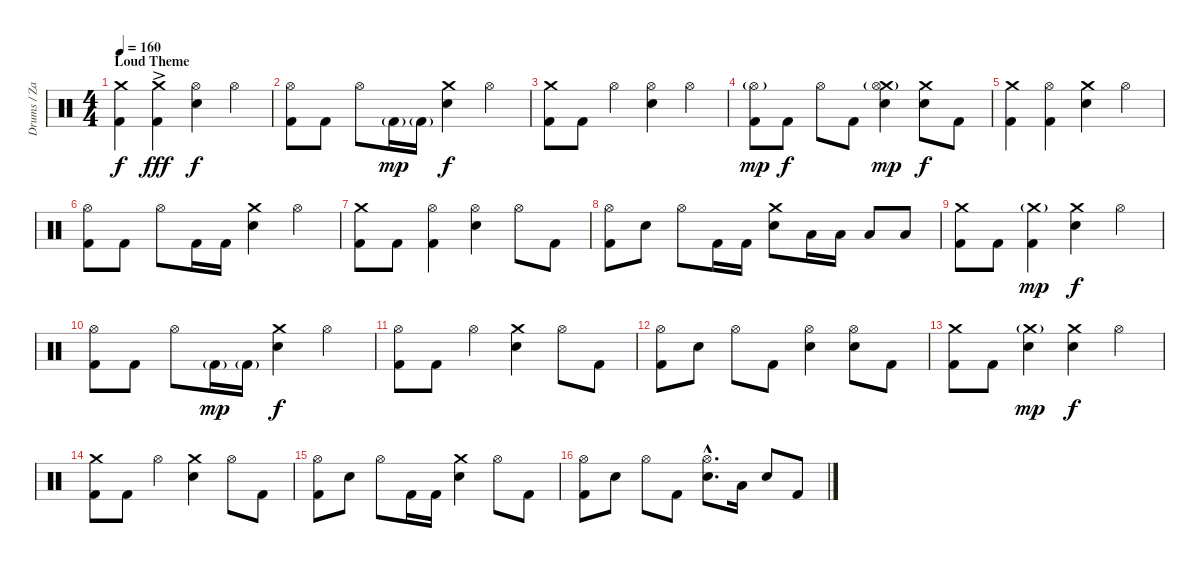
\track ("Drums / Zac Hill" "Drums / Za") {instrument percussion}
\staff {score}
\articulation defaults
\ts (4 4)
\section ("" "Loud Theme")
\tempo 160
\clef neutral
\ks c
("Crash medium (hit)" "Kick (hit) 2").4{dy f} ("Crash medium (hit)"{ac} "Kick (hit) 2").4{dy fff} ("Hi-Hat (open)" "Electric Snare (hit)").4{dy f} "Hi-Hat (open)".4 |
("Hi-Hat (open)" "Kick (hit) 2").8 "Kick (hit) 2".8 "Hi-Hat (open)".8 "Kick (hit) 2"{g}.16{dy mp} "Kick (hit) 2"{g}.16 ("Crash medium (hit)" "Electric Snare (hit)").4{dy f} "Hi-Hat (open)".4 |
("Crash medium (hit)" "Kick (hit) 2").8 "Kick (hit) 2".8 "Hi-Hat (open)".4 ("Hi-Hat (open)" "Electric Snare (hit)").4 "Hi-Hat (open)".4 |
("Hi-Hat (open)"{g} "Kick (hit) 2").8{dy mp} "Kick (hit) 2".8{dy f} "Hi-Hat (open)".8 "Kick (hit) 2".8 ("Crash medium (hit)"{g} "Hi-Hat (open)" "Electric Snare (hit)").4{dy mp} ("Crash medium (hit)" "Electric Snare (hit)").8{dy f} "Kick (hit) 2".8 |
("Crash medium (hit)" "Kick (hit) 2").4 ("Hi-Hat (open)" "Kick (hit) 2").4 ("Crash medium (hit)" "Electric Snare (hit)").4 "Hi-Hat (open)".4 |
("Hi-Hat (open)" "Kick (hit) 2").8 "Kick (hit) 2".8 "Hi-Hat (open)".8 "Kick (hit) 2".16 "Kick (hit) 2".16 ("Crash medium (hit)" "Electric Snare (hit)").4 "Hi-Hat (open)".4 |
("Crash medium (hit)" "Kick (hit) 2").8 "Kick (hit) 2".8 ("Hi-Hat (open)" "Kick (hit) 2").4 ("Hi-Hat (open)" "Electric Snare (hit)").4 "Hi-Hat (open)".8 "Kick (hit) 2".8 |
("Hi-Hat (open)" "Kick (hit) 2").8 "Electric Snare (hit)".8 "Hi-Hat (open)".8 "Kick (hit) 2".16 "Kick (hit) 2".16 ("Crash medium (hit)" "Electric Snare (hit)").8 "Low Tom (hit)".16 "Low Tom (hit)".16 "Low Tom (hit)".8 "Low Floor Tom (hit)".8 |
("Crash medium (hit)" "Kick (hit) 2").8 "Kick (hit) 2".8 ("Crash medium (hit)"{g} "Kick (hit) 2").4{dy mp} ("Crash medium (hit)" "Electric Snare (hit)").4{dy f} "Hi-Hat (open)".4 |
("Hi-Hat (open)" "Kick (hit) 2").8 "Kick (hit) 2".8 "Hi-Hat (open)".8 "Kick (hit) 2"{g}.16{dy mp} "Kick (hit) 2"{g}.16 ("Crash medium (hit)" "Electric Snare (hit)").4{dy f} "Hi-Hat (open)".4 |
("Hi-Hat (open)" "Kick (hit) 2").8 "Kick (hit) 2".8 "Hi-Hat (open)".4 ("Crash medium (hit)" "Electric Snare (hit)").4 "Hi-Hat (open)".8 "Kick (hit) 2".8 |
("Hi-Hat (open)" "Kick (hit) 2").8 "Electric Snare (hit)".8 "Hi-Hat (open)".8 "Kick (hit) 2".8 ("Hi-Hat (open)" "Electric Snare (hit)").4 ("Hi-Hat (open)" "Electric Snare (hit)").8 "Kick (hit) 2".8 |
("Crash medium (hit)" "Kick (hit) 2").8 "Kick (hit) 2".8 ("Crash medium (hit)"{g} "Electric Snare (hit)").4{dy mp} ("Crash medium (hit)" "Electric Snare (hit)").4{dy f} "Hi-Hat (open)".4 |
("Crash medium (hit)" "Kick (hit) 2").8 "Kick (hit) 2".8 "Hi-Hat (open)".4 ("Crash medium (hit)" "Electric Snare (hit)").4 "Hi-Hat (open)".8 "Kick (hit) 2".8 |
("Hi-Hat (open)" "Kick (hit) 2").8 "Electric Snare (hit)".8 "Hi-Hat (open)".8 "Kick (hit) 2".16 "Kick (hit) 2".16 ("Crash medium (hit)" "Electric Snare (hit)").4 "Hi-Hat (open)".8 "Kick (hit) 2".8 |
("Hi-Hat (open)" "Kick (hit) 2").8 "Electric Snare (hit)".8 "Hi-Hat (open)".8 "Kick (hit) 2".8 ("Hi-Hat (open)"{hac} "Electric Snare (hit)"{hac}).8{d} "Low Tom (hit)".16 "Electric Snare (hit)".8 "Kick (hit) 2".8
